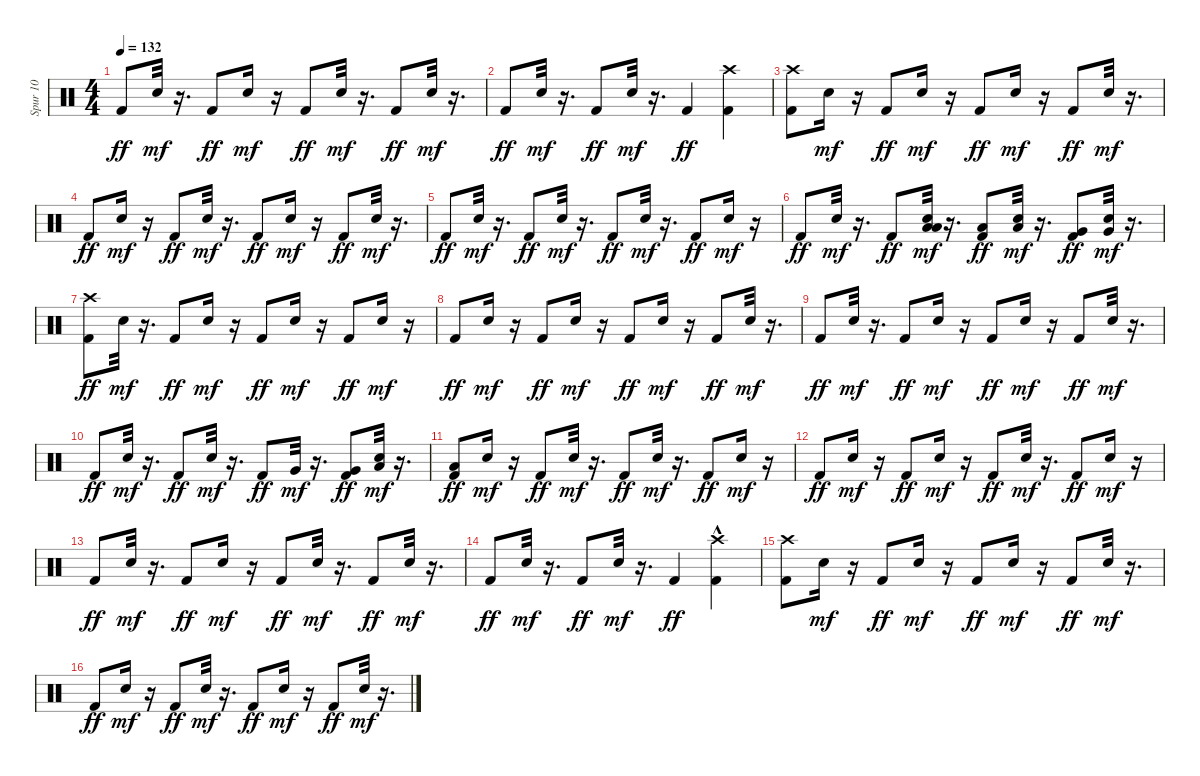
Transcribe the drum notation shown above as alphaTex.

\track ("Spur 10" "Spur 10") {instrument percussion}
\staff {score}
\articulation defaults
\ts (4 4)
\tempo 132
\clef neutral
\ks c "Kick (hit) 2".8{dy ff} "Snare (hit) 2".32{dy mf}
r.16{d} "Kick (hit) 2".8{dy ff} "Snare (hit) 2".16{dy mf} r.16 "Kick (hit) 2".8{dy ff} "Snare (hit) 2".32{dy mf} r.16{d} "Kick (hit) 2".8{dy ff} "Snare (hit) 2".32{dy mf} r.16{d} |
"Kick (hit) 2".8{dy ff} "Snare (hit) 2".32{dy mf} r.16{d} "Kick (hit) 2".8{dy ff} "Snare (hit) 2".32{dy mf} r.16{d} "Kick (hit) 2".4{dy ff} ("Crash high (hit)" "Kick (hit) 2").4 |
("Crash high (hit)" "Kick (hit) 2").8 "Snare (hit) 2".16{dy mf} r.16 "Kick (hit) 2".8{dy ff} "Snare (hit) 2".16{dy mf} r.16 "Kick (hit) 2".8{dy ff} "Snare (hit) 2".16{dy mf} r.16 "Kick (hit) 2".8{dy ff} "Snare (hit) 2".32{dy mf} r.16{d} |
"Kick (hit) 2".8{dy ff} "Snare (hit) 2".16{dy mf} r.16 "Kick (hit) 2".8{dy ff} "Snare (hit) 2".32{dy mf} r.16{d} "Kick (hit) 2".8{dy ff} "Snare (hit) 2".16{dy mf} r.16 "Kick (hit) 2".8{dy ff} "Snare (hit) 2".32{dy mf} r.16{d} |
"Kick (hit) 2".8{dy ff} "Snare (hit) 2".32{dy mf} r.16{d} "Kick (hit) 2".8{dy ff} "Snare (hit) 2".32{dy mf} r.16{d} "Kick (hit) 2".8{dy ff} "Snare (hit) 2".32{dy mf} r.16{d} "Kick (hit) 2".8{dy ff} "Snare (hit) 2".16{dy mf} r.16 |
"Kick (hit) 2".8{dy ff} "Snare (hit) 2".32{dy mf} r.16{d} "Kick (hit) 2".8{dy ff} ("Snare (hit) 2" "Low Tom (hit)" "Low Tom (hit)").32{dy mf} r.16{d} ("Low Tom (hit)" "Kick (hit) 2").8{dy ff} ("Snare (hit) 2" "Low Tom (hit)").32{dy mf} r.16{d} ("Very Low Tom (hit)" "Kick (hit) 2").8{dy ff} ("Snare (hit) 2" "Very Low Tom (hit)").32{dy mf} r.16{d} |
("Crash high (hit)" "Kick (hit) 2").8{dy ff} "Snare (hit) 2".32{dy mf} r.16{d} "Kick (hit) 2".8{dy ff} "Snare (hit) 2".16{dy mf} r.16 "Kick (hit) 2".8{dy ff} "Snare (hit) 2".16{dy mf} r.16 "Kick (hit) 2".8{dy ff} "Snare (hit) 2".16{dy mf} r.16 |
"Kick (hit) 2".8{dy ff} "Snare (hit) 2".16{dy mf} r.16 "Kick (hit) 2".8{dy ff} "Snare (hit) 2".16{dy mf} r.16 "Kick (hit) 2".8{dy ff} "Snare (hit) 2".16{dy mf} r.16 "Kick (hit) 2".8{dy ff} "Snare (hit) 2".32{dy mf} r.16{d} |
"Kick (hit) 2".8{dy ff} "Snare (hit) 2".32{dy mf} r.16{d} "Kick (hit) 2".8{dy ff} "Snare (hit) 2".16{dy mf} r.16 "Kick (hit) 2".8{dy ff} "Snare (hit) 2".16{dy mf} r.16 "Kick (hit) 2".8{dy ff} "Snare (hit) 2".32{dy mf} r.16{d} |
"Kick (hit) 2".8{dy ff} "Snare (hit) 2".32{dy mf} r.16{d} "Kick (hit) 2".8{dy ff} "Snare (hit) 2".32{dy mf} r.16{d} "Kick (hit) 2".8{dy ff} "Very Low Tom (hit)".32{dy mf} r.16{d} ("Very Low Tom (hit)" "Kick (hit) 2").8{dy ff} ("Snare (hit) 2" "Low Floor Tom (hit)").32{dy mf} r.16{d} |
("Low Floor Tom (hit)" "Kick (hit) 2").8{dy ff} "Snare (hit) 2".16{dy mf} r.16 "Kick (hit) 2".8{dy ff} "Snare (hit) 2".32{dy mf} r.16{d} "Kick (hit) 2".8{dy ff} "Snare (hit) 2".32{dy mf} r.16{d} "Kick (hit) 2".8{dy ff} "Snare (hit) 2".16{dy mf} r.16 |
"Kick (hit) 2".8{dy ff} "Snare (hit) 2".16{dy mf} r.16 "Kick (hit) 2".8{dy ff} "Snare (hit) 2".16{dy mf} r.16 "Kick (hit) 2".8{dy ff} "Snare (hit) 2".32{dy mf} r.16{d} "Kick (hit) 2".8{dy ff} "Snare (hit) 2".16{dy mf} r.16 |
"Kick (hit) 2".8{dy ff} "Snare (hit) 2".32{dy mf} r.16{d} "Kick (hit) 2".8{dy ff} "Snare (hit) 2".16{dy mf} r.16 "Kick (hit) 2".8{dy ff} "Snare (hit) 2".32{dy mf} r.16{d} "Kick (hit) 2".8{dy ff} "Snare (hit) 2".32{dy mf} r.16{d} |
"Kick (hit) 2".8{dy ff} "Snare (hit) 2".32{dy mf} r.16{d} "Kick (hit) 2".8{dy ff} "Snare (hit) 2".32{dy mf} r.16{d} "Kick (hit) 2".4{dy ff} ("Crash high (hit)"{hac} "Kick (hit) 2").4 |
("Crash high (hit)" "Kick (hit) 2").8 "Snare (hit) 2".16{dy mf} r.16 "Kick (hit) 2".8{dy ff} "Snare (hit) 2".16{dy mf} r.16 "Kick (hit) 2".8{dy ff} "Snare (hit) 2".16{dy mf} r.16 "Kick (hit) 2".8{dy ff} "Snare (hit) 2".32{dy mf} r.16{d} |
"Kick (hit) 2".8{dy ff} "Snare (hit) 2".16{dy mf} r.16 "Kick (hit) 2".8{dy ff} "Snare (hit) 2".32{dy mf} r.16{d} "Kick (hit) 2".8{dy ff} "Snare (hit) 2".16{dy mf} r.16 "Kick (hit) 2".8{dy ff} "Snare (hit) 2".32{dy mf} r.16{d}
